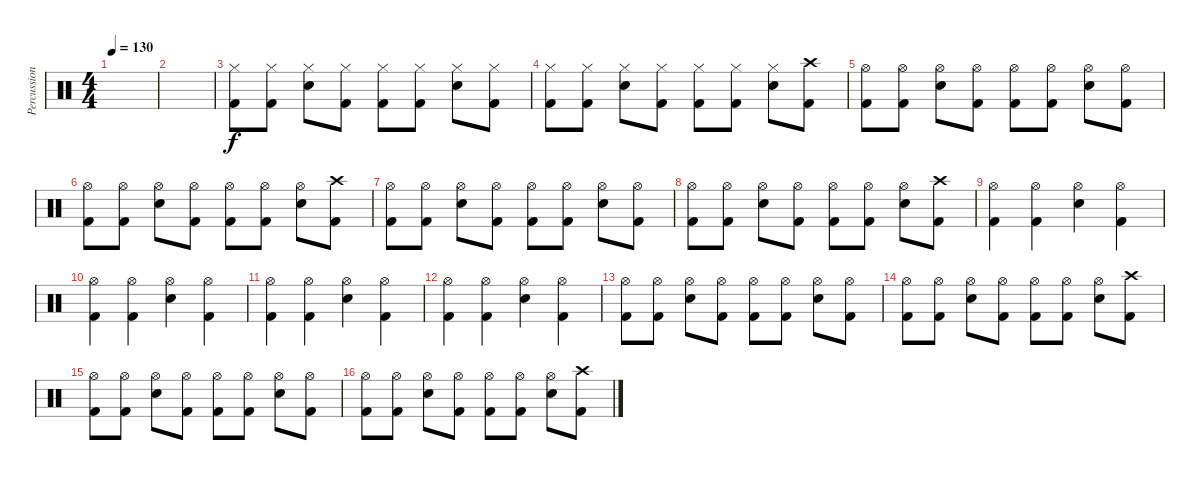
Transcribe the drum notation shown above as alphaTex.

\track ("Percussion" "Percussion") {instrument percussion}
\staff {score}
\articulation defaults
\ts (4 4)
\tempo 130
\clef neutral
\ks c
|
|
("Hi-Hat (closed)" "Kick (hit) 2").8 ("Hi-Hat (closed)" "Kick (hit) 2").8 ("Hi-Hat (closed)" "Electric Snare (hit)").8 ("Hi-Hat (closed)" "Kick (hit) 2").8 ("Hi-Hat (closed)" "Kick (hit) 2").8 ("Hi-Hat (closed)" "Kick (hit) 2").8 ("Hi-Hat (closed)" "Electric Snare (hit)").8 ("Hi-Hat (closed)" "Kick (hit) 2").8 |
("Hi-Hat (closed)" "Kick (hit) 2").8 ("Hi-Hat (closed)" "Kick (hit) 2").8 ("Hi-Hat (closed)" "Electric Snare (hit)").8 ("Hi-Hat (closed)" "Kick (hit) 2").8 ("Hi-Hat (closed)" "Kick (hit) 2").8 ("Hi-Hat (closed)" "Kick (hit) 2").8 ("Hi-Hat (closed)" "Electric Snare (hit)").8 ("Crash high (hit)" "Kick (hit) 2").8 |
("Hi-Hat (open)" "Kick (hit) 2").8 ("Hi-Hat (open)" "Kick (hit) 2").8 ("Hi-Hat (open)" "Electric Snare (hit)").8 ("Hi-Hat (open)" "Kick (hit) 2").8 ("Hi-Hat (open)" "Kick (hit) 2").8 ("Hi-Hat (open)" "Kick (hit) 2").8 ("Hi-Hat (open)" "Electric Snare (hit)").8 ("Hi-Hat (open)" "Kick (hit) 2").8 |
("Hi-Hat (open)" "Kick (hit) 2").8 ("Hi-Hat (open)" "Kick (hit) 2").8 ("Hi-Hat (open)" "Electric Snare (hit)").8 ("Hi-Hat (open)" "Kick (hit) 2").8 ("Hi-Hat (open)" "Kick (hit) 2").8 ("Hi-Hat (open)" "Kick (hit) 2").8 ("Hi-Hat (open)" "Electric Snare (hit)").8 ("Crash high (hit)" "Kick (hit) 2").8 |
("Hi-Hat (open)" "Kick (hit) 2").8 ("Hi-Hat (open)" "Kick (hit) 2").8 ("Hi-Hat (open)" "Electric Snare (hit)").8 ("Hi-Hat (open)" "Kick (hit) 2").8 ("Hi-Hat (open)" "Kick (hit) 2").8 ("Hi-Hat (open)" "Kick (hit) 2").8 ("Hi-Hat (open)" "Electric Snare (hit)").8 ("Hi-Hat (open)" "Kick (hit) 2").8 |
("Hi-Hat (open)" "Kick (hit) 2").8 ("Hi-Hat (open)" "Kick (hit) 2").8 ("Hi-Hat (open)" "Electric Snare (hit)").8 ("Hi-Hat (open)" "Kick (hit) 2").8 ("Hi-Hat (open)" "Kick (hit) 2").8 ("Hi-Hat (open)" "Kick (hit) 2").8 ("Hi-Hat (open)" "Electric Snare (hit)").8 ("Crash high (hit)" "Kick (hit) 2").8 |
("Hi-Hat (open)" "Kick (hit) 2").4 ("Hi-Hat (open)" "Kick (hit) 2").4 ("Hi-Hat (open)" "Electric Snare (hit)").4 ("Hi-Hat (open)" "Kick (hit) 2").4 |
("Hi-Hat (open)" "Kick (hit) 2").4 ("Hi-Hat (open)" "Kick (hit) 2").4 ("Hi-Hat (open)" "Electric Snare (hit)").4 ("Hi-Hat (open)" "Kick (hit) 2").4 |
("Hi-Hat (open)" "Kick (hit) 2").4 ("Hi-Hat (open)" "Kick (hit) 2").4 ("Hi-Hat (open)" "Electric Snare (hit)").4 ("Hi-Hat (open)" "Kick (hit) 2").4 |
("Hi-Hat (open)" "Kick (hit) 2").4 ("Hi-Hat (open)" "Kick (hit) 2").4 ("Hi-Hat (open)" "Electric Snare (hit)").4 ("Hi-Hat (open)" "Kick (hit) 2").4 |
("Hi-Hat (open)" "Kick (hit) 2").8 ("Hi-Hat (open)" "Kick (hit) 2").8 ("Hi-Hat (open)" "Electric Snare (hit)").8 ("Hi-Hat (open)" "Kick (hit) 2").8 ("Hi-Hat (open)" "Kick (hit) 2").8 ("Hi-Hat (open)" "Kick (hit) 2").8 ("Hi-Hat (open)" "Electric Snare (hit)").8 ("Hi-Hat (open)" "Kick (hit) 2").8 |
("Hi-Hat (open)" "Kick (hit) 2").8 ("Hi-Hat (open)" "Kick (hit) 2").8 ("Hi-Hat (open)" "Electric Snare (hit)").8 ("Hi-Hat (open)" "Kick (hit) 2").8 ("Hi-Hat (open)" "Kick (hit) 2").8 ("Hi-Hat (open)" "Kick (hit) 2").8 ("Hi-Hat (open)" "Electric Snare (hit)").8 ("Crash high (hit)" "Kick (hit) 2").8 |
("Hi-Hat (open)" "Kick (hit) 2").8 ("Hi-Hat (open)" "Kick (hit) 2").8 ("Hi-Hat (open)" "Electric Snare (hit)").8 ("Hi-Hat (open)" "Kick (hit) 2").8 ("Hi-Hat (open)" "Kick (hit) 2").8 ("Hi-Hat (open)" "Kick (hit) 2").8 ("Hi-Hat (open)" "Electric Snare (hit)").8 ("Hi-Hat (open)" "Kick (hit) 2").8 |
("Hi-Hat (open)" "Kick (hit) 2").8 ("Hi-Hat (open)" "Kick (hit) 2").8 ("Hi-Hat (open)" "Electric Snare (hit)").8 ("Hi-Hat (open)" "Kick (hit) 2").8 ("Hi-Hat (open)" "Kick (hit) 2").8 ("Hi-Hat (open)" "Kick (hit) 2").8 ("Hi-Hat (open)" "Electric Snare (hit)").8 ("Crash high (hit)" "Kick (hit) 2").8
